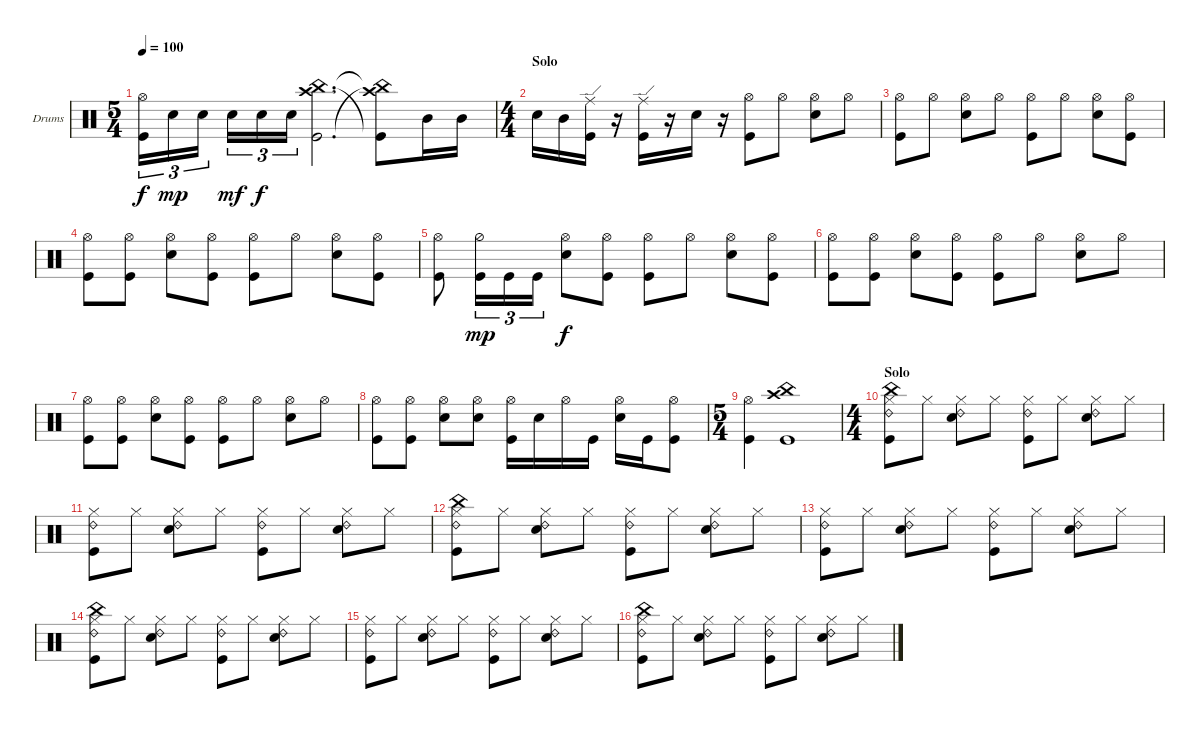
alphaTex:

\defaultSystemsLayout 4
\bracketExtendMode groupsimilarinstruments
\firstSystemTrackNameOrientation horizontal
\otherSystemsTrackNameOrientation horizontal
\track ("Drumkit" "Drums") {instrument percussion}
\staff {score}
\articulation defaults
\ts (5 4)
\tempo 100
\clef neutral
\ks c
("Hi-Hat (open)" "Kick (hit)").16{tu (3 2) dy f} "Snare (hit) 2".16{tu (3 2) dy mp} "Snare (hit) 2".16{tu (3 2)} "Snare (hit) 2".16{tu (3 2) dy mf} "Snare (hit) 2".16{tu (3 2) dy f} "Snare (hit) 2".16{tu (3 2)} ("Crash high (hit)" "Kick (hit)" "China (hit)").2{d} ("Kick (hit)"{t} "Crash high (hit)"{t} "China (hit)"{t}).8 "Mid Tom (hit)".16 "Mid Tom (hit)".16 |
\ts (4 4)
\section ("" "Solo")
"Snare (hit) 2".16 "Mid Tom (hit)".16 ("Kick (hit)" "Ride (edge)").16 r.16 ("Kick (hit)" "Ride (edge)").16 r.16 "Snare (hit) 2".16 r.16 ("Hi-Hat (open)" "Kick (hit)").8 "Hi-Hat (open)".8 ("Hi-Hat (open)" "Snare (hit) 2").8 "Hi-Hat (open)".8 |
("Hi-Hat (open)" "Kick (hit)").8 "Hi-Hat (open)".8 ("Hi-Hat (open)" "Snare (hit) 2").8 "Hi-Hat (open)".8 ("Hi-Hat (open)" "Kick (hit)").8 "Hi-Hat (open)".8 ("Hi-Hat (open)" "Snare (hit) 2").8 ("Hi-Hat (open)" "Kick (hit)").8 |
("Hi-Hat (open)" "Kick (hit)").8 ("Hi-Hat (open)" "Kick (hit)").8 ("Hi-Hat (open)" "Snare (hit) 2").8 ("Hi-Hat (open)" "Kick (hit)").8 ("Hi-Hat (open)" "Kick (hit)").8 "Hi-Hat (open)".8 ("Hi-Hat (open)" "Snare (hit) 2").8 ("Hi-Hat (open)" "Kick (hit)").8 |
("Hi-Hat (open)" "Kick (hit)").8 ("Kick (hit)" "Hi-Hat (half)").16{tu (3 2) dy mp} "Kick (hit)".16{tu (3 2)} "Kick (hit)".16{tu (3 2)} ("Hi-Hat (open)" "Snare (hit) 2").8{dy f} ("Hi-Hat (open)" "Kick (hit)").8 ("Hi-Hat (open)" "Kick (hit)").8 "Hi-Hat (open)".8 ("Hi-Hat (open)" "Snare (hit) 2").8 ("Hi-Hat (open)" "Kick (hit)").8 |
("Hi-Hat (open)" "Kick (hit)").8 ("Hi-Hat (open)" "Kick (hit)").8 ("Hi-Hat (open)" "Snare (hit) 2").8 ("Hi-Hat (open)" "Kick (hit)").8 ("Hi-Hat (open)" "Kick (hit)").8 "Hi-Hat (open)".8 ("Hi-Hat (open)" "Snare (hit) 2").8 "Hi-Hat (open)".8 |
("Hi-Hat (open)" "Kick (hit)").8 ("Hi-Hat (open)" "Kick (hit)").8 ("Hi-Hat (open)" "Snare (hit) 2").8 ("Hi-Hat (open)" "Kick (hit)").8 ("Hi-Hat (open)" "Kick (hit)").8 "Hi-Hat (open)".8 ("Hi-Hat (open)" "Snare (hit) 2").8 "Hi-Hat (open)".8 |
("Hi-Hat (open)" "Kick (hit)").8 ("Hi-Hat (open)" "Kick (hit)").8 ("Hi-Hat (open)" "Snare (hit) 2").8 ("Hi-Hat (open)" "Snare (hit) 2").8 ("Hi-Hat (open)" "Kick (hit)").16 "Snare (hit) 2".16 "Hi-Hat (open)".16 "Kick (hit)".16 ("Snare (hit) 2" "Hi-Hat (open)").16 "Kick (hit)".16 ("Kick (hit)" "Hi-Hat (open)").8 |
\ts (5 4)
("Hi-Hat (open)" "Kick (hit)").4 ("Crash high (hit)" "Kick (hit)" "China (hit)").1 |
\ts (4 4)
\section ("" "Solo")
("Ride (bell) 2" "Kick (hit)" "Hi-Hat (closed)" "China (hit)").8 "Hi-Hat (closed)".8 ("Hi-Hat (closed)" "Ride (bell) 2" "Snare (hit) 2").8 "Hi-Hat (closed)".8 ("Hi-Hat (closed)" "Ride (bell) 2" "Kick (hit)").8 "Hi-Hat (closed)".8 ("Hi-Hat (closed)" "Ride (bell) 2" "Snare (hit) 2").8 "Hi-Hat (closed)".8 |
("Ride (bell) 2" "Kick (hit)" "Hi-Hat (closed)").8 "Hi-Hat (closed)".8 ("Hi-Hat (closed)" "Ride (bell) 2" "Snare (hit) 2").8 "Hi-Hat (closed)".8 ("Hi-Hat (closed)" "Ride (bell) 2" "Kick (hit)").8 "Hi-Hat (closed)".8 ("Hi-Hat (closed)" "Ride (bell) 2" "Snare (hit) 2").8 "Hi-Hat (closed)".8 |
("Ride (bell) 2" "Kick (hit)" "Hi-Hat (closed)" "China (hit)").8 "Hi-Hat (closed)".8 ("Hi-Hat (closed)" "Ride (bell) 2" "Snare (hit) 2").8 "Hi-Hat (closed)".8 ("Hi-Hat (closed)" "Ride (bell) 2" "Kick (hit)").8 "Hi-Hat (closed)".8 ("Hi-Hat (closed)" "Ride (bell) 2" "Snare (hit) 2").8 "Hi-Hat (closed)".8 |
("Ride (bell) 2" "Kick (hit)" "Hi-Hat (closed)").8 "Hi-Hat (closed)".8 ("Hi-Hat (closed)" "Ride (bell) 2" "Snare (hit) 2").8 "Hi-Hat (closed)".8 ("Hi-Hat (closed)" "Ride (bell) 2" "Kick (hit)").8 "Hi-Hat (closed)".8 ("Hi-Hat (closed)" "Ride (bell) 2" "Snare (hit) 2").8 "Hi-Hat (closed)".8 |
("Ride (bell) 2" "Kick (hit)" "Hi-Hat (closed)" "China (hit)").8 "Hi-Hat (closed)".8 ("Hi-Hat (closed)" "Ride (bell) 2" "Snare (hit) 2").8 "Hi-Hat (closed)".8 ("Hi-Hat (closed)" "Ride (bell) 2" "Kick (hit)").8 "Hi-Hat (closed)".8 ("Hi-Hat (closed)" "Ride (bell) 2" "Snare (hit) 2").8 "Hi-Hat (closed)".8 |
("Ride (bell) 2" "Kick (hit)" "Hi-Hat (closed)").8 "Hi-Hat (closed)".8 ("Hi-Hat (closed)" "Ride (bell) 2" "Snare (hit) 2").8 "Hi-Hat (closed)".8 ("Hi-Hat (closed)" "Ride (bell) 2" "Kick (hit)").8 "Hi-Hat (closed)".8 ("Hi-Hat (closed)" "Ride (bell) 2" "Snare (hit) 2").8 "Hi-Hat (closed)".8 |
("Ride (bell) 2" "Kick (hit)" "Hi-Hat (closed)" "China (hit)").8 "Hi-Hat (closed)".8 ("Hi-Hat (closed)" "Ride (bell) 2" "Snare (hit) 2").8 "Hi-Hat (closed)".8 ("Hi-Hat (closed)" "Ride (bell) 2" "Kick (hit)").8 "Hi-Hat (closed)".8 ("Hi-Hat (closed)" "Ride (bell) 2" "Snare (hit) 2").8 "Hi-Hat (closed)".8
